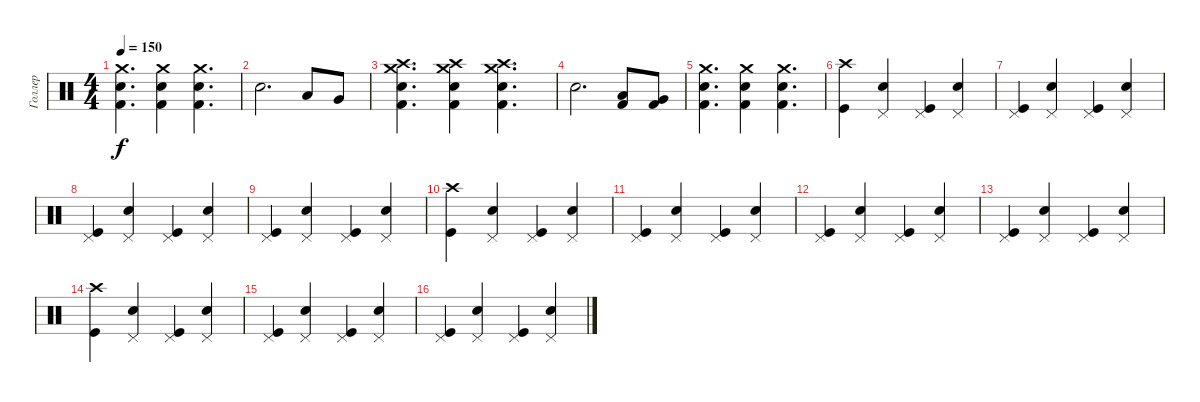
\track ("Голлер" "Голлер") {instrument percussion}
\staff {score}
\articulation defaults
\ts (4 4)
\tempo 150
\clef neutral
\ks c
("Kick (hit) 2" "Snare (hit) 2" "Crash medium (hit)").4{d dy f} ("Kick (hit) 2" "Snare (hit) 2" "Crash medium (hit)").4 ("Kick (hit) 2" "Snare (hit) 2" "Crash medium (hit)").4{d} |
"Hand Clap (hit)".2{d} "Low Floor Tom (hit)".8 "Very Low Tom (hit)".8 |
("Kick (hit) 2" "Snare (hit) 2" "Crash medium (hit)" "Crash high (hit)").4{d} ("Kick (hit) 2" "Snare (hit) 2" "Crash medium (hit)" "Crash high (hit)").4 ("Kick (hit) 2" "Snare (hit) 2" "Crash medium (hit)" "Crash high (hit)").4{d} |
"Hand Clap (hit)".2{d} ("Low Floor Tom (hit)" "Kick (hit) 2").8 ("Very Low Tom (hit)" "Kick (hit) 2").8 |
("Kick (hit) 2" "Snare (hit) 2" "Crash medium (hit)").4{d} ("Kick (hit) 2" "Snare (hit) 2" "Crash medium (hit)").4 ("Kick (hit) 2" "Snare (hit) 2" "Crash medium (hit)").4{d} |
("Crash high (hit)" "Kick (hit)").4 ("Pedal Hi-Hat (hit)" "Snare (hit) 2").4 ("Pedal Hi-Hat (hit)" "Kick (hit)").4 ("Pedal Hi-Hat (hit)" "Snare (hit) 2").4 |
("Pedal Hi-Hat (hit)" "Kick (hit)").4 ("Pedal Hi-Hat (hit)" "Snare (hit) 2").4 ("Pedal Hi-Hat (hit)" "Kick (hit)").4 ("Pedal Hi-Hat (hit)" "Snare (hit) 2").4 |
("Pedal Hi-Hat (hit)" "Kick (hit)").4 ("Pedal Hi-Hat (hit)" "Snare (hit) 2").4 ("Pedal Hi-Hat (hit)" "Kick (hit)").4 ("Pedal Hi-Hat (hit)" "Snare (hit) 2").4 |
("Pedal Hi-Hat (hit)" "Kick (hit)").4 ("Pedal Hi-Hat (hit)" "Snare (hit) 2").4 ("Pedal Hi-Hat (hit)" "Kick (hit)").4 ("Pedal Hi-Hat (hit)" "Snare (hit) 2").4 |
("Crash high (hit)" "Kick (hit)").4 ("Pedal Hi-Hat (hit)" "Snare (hit) 2").4 ("Pedal Hi-Hat (hit)" "Kick (hit)").4 ("Pedal Hi-Hat (hit)" "Snare (hit) 2").4 |
("Pedal Hi-Hat (hit)" "Kick (hit)").4 ("Pedal Hi-Hat (hit)" "Snare (hit) 2").4 ("Pedal Hi-Hat (hit)" "Kick (hit)").4 ("Pedal Hi-Hat (hit)" "Snare (hit) 2").4 |
("Pedal Hi-Hat (hit)" "Kick (hit)").4 ("Pedal Hi-Hat (hit)" "Snare (hit) 2").4 ("Pedal Hi-Hat (hit)" "Kick (hit)").4 ("Pedal Hi-Hat (hit)" "Snare (hit) 2").4 |
("Pedal Hi-Hat (hit)" "Kick (hit)").4 ("Pedal Hi-Hat (hit)" "Snare (hit) 2").4 ("Pedal Hi-Hat (hit)" "Kick (hit)").4 ("Pedal Hi-Hat (hit)" "Snare (hit) 2").4 |
("Crash high (hit)" "Kick (hit)").4 ("Pedal Hi-Hat (hit)" "Snare (hit) 2").4 ("Pedal Hi-Hat (hit)" "Kick (hit)").4 ("Pedal Hi-Hat (hit)" "Snare (hit) 2").4 |
("Pedal Hi-Hat (hit)" "Kick (hit)").4 ("Pedal Hi-Hat (hit)" "Snare (hit) 2").4 ("Pedal Hi-Hat (hit)" "Kick (hit)").4 ("Pedal Hi-Hat (hit)" "Snare (hit) 2").4 |
("Pedal Hi-Hat (hit)" "Kick (hit)").4 ("Pedal Hi-Hat (hit)" "Snare (hit) 2").4 ("Pedal Hi-Hat (hit)" "Kick (hit)").4 ("Pedal Hi-Hat (hit)" "Snare (hit) 2").4
